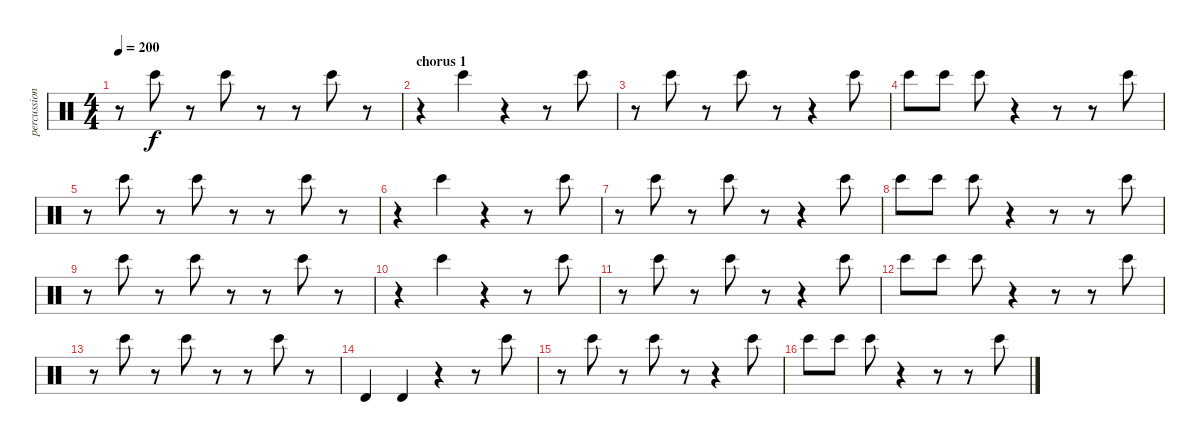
\track ("percussion" "percussion") {instrument percussion}
\staff {score}
\articulation defaults
\ts (4 4)
\tempo 200
\clef neutral
\ks c
r.8{dy f} "Bongo High (hit)".8 r.8 "Bongo High (hit)".8 r.8 r.8 "Bongo High (hit)".8 r.8 |
\section ("" "chorus 1")
r.4 "Bongo High (hit)".4 r.4 r.8 "Bongo High (hit)".8 |
r.8 "Bongo High (hit)".8 r.8 "Bongo High (hit)".8 r.8 r.4 "Bongo High (hit)".8 |
"Bongo High (hit)".8 "Bongo High (hit)".8 "Bongo High (hit)".8 r.4 r.8 r.8 "Bongo High (hit)".8 |
r.8 "Bongo High (hit)".8 r.8 "Bongo High (hit)".8 r.8 r.8 "Bongo High (hit)".8 r.8 |
r.4 "Bongo High (hit)".4 r.4 r.8 "Bongo High (hit)".8 |
r.8 "Bongo High (hit)".8 r.8 "Bongo High (hit)".8 r.8 r.4 "Bongo High (hit)".8 |
"Bongo High (hit)".8 "Bongo High (hit)".8 "Bongo High (hit)".8 r.4 r.8 r.8 "Bongo High (hit)".8 |
r.8 "Bongo High (hit)".8 r.8 "Bongo High (hit)".8 r.8 r.8 "Bongo High (hit)".8 r.8 |
r.4 "Bongo High (hit)".4 r.4 r.8 "Bongo High (hit)".8 |
r.8 "Bongo High (hit)".8 r.8 "Bongo High (hit)".8 r.8 r.4 "Bongo High (hit)".8 |
"Bongo High (hit)".8 "Bongo High (hit)".8 "Bongo High (hit)".8 r.4 r.8 r.8 "Bongo High (hit)".8 |
r.8 "Bongo High (hit)".8 r.8 "Bongo High (hit)".8 r.8 r.8 "Bongo High (hit)".8 r.8 |
"Timbale high (hit)".4{volume 16} "Timbale high (hit)".4 r.4{volume 13} r.8 "Bongo High (hit)".8 |
r.8 "Bongo High (hit)".8 r.8 "Bongo High (hit)".8 r.8 r.4 "Bongo High (hit)".8 |
"Bongo High (hit)".8 "Bongo High (hit)".8 "Bongo High (hit)".8 r.4 r.8 r.8 "Bongo High (hit)".8
